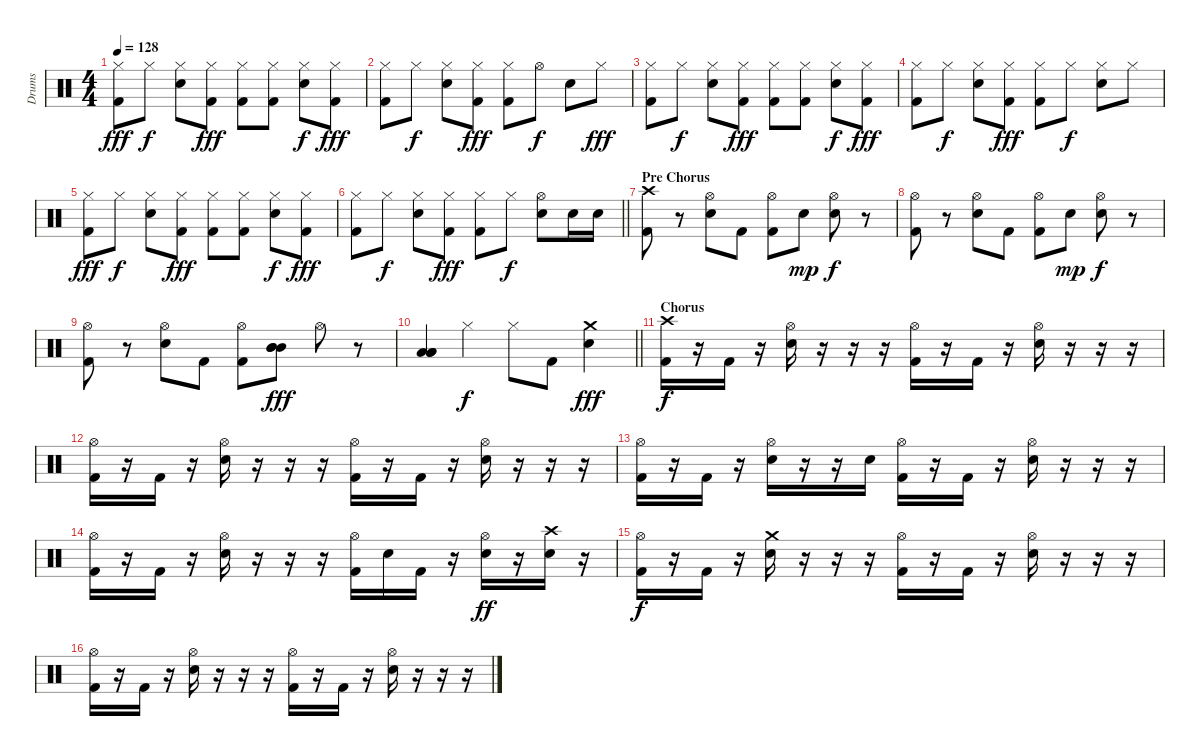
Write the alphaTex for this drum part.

\track ("Drums" "Drums") {instrument percussion}
\staff {score}
\articulation defaults
\ts (4 4)
\tempo 128
\clef neutral
\ks c
("Hi-Hat (closed)" "Kick (hit) 2").8{dy fff} "Hi-Hat (closed)".8{dy f} ("Hi-Hat (closed)" "Electric Snare (hit)").8 ("Hi-Hat (closed)" "Kick (hit) 2").8{dy fff} ("Hi-Hat (closed)" "Kick (hit) 2").8 ("Hi-Hat (closed)" "Kick (hit) 2").8 ("Hi-Hat (closed)" "Electric Snare (hit)").8{dy f} ("Hi-Hat (closed)" "Kick (hit) 2").8{dy fff} |
("Hi-Hat (closed)" "Kick (hit) 2").8 "Hi-Hat (closed)".8{dy f} ("Hi-Hat (closed)" "Electric Snare (hit)").8 ("Hi-Hat (closed)" "Kick (hit) 2").8{dy fff} ("Hi-Hat (closed)" "Kick (hit) 2").8 "Hi-Hat (open)".8{dy f} "Electric Snare (hit)".8 "Hi-Hat (closed)".8{dy fff} |
("Hi-Hat (closed)" "Kick (hit) 2").8 "Hi-Hat (closed)".8{dy f} ("Hi-Hat (closed)" "Electric Snare (hit)").8 ("Hi-Hat (closed)" "Kick (hit) 2").8{dy fff} ("Hi-Hat (closed)" "Kick (hit) 2").8 ("Hi-Hat (closed)" "Kick (hit) 2").8 ("Hi-Hat (closed)" "Electric Snare (hit)").8{dy f} ("Hi-Hat (closed)" "Kick (hit) 2").8{dy fff} |
("Hi-Hat (closed)" "Kick (hit) 2").8 "Hi-Hat (closed)".8{dy f} ("Hi-Hat (closed)" "Electric Snare (hit)").8 ("Hi-Hat (closed)" "Kick (hit) 2").8{dy fff} ("Hi-Hat (closed)" "Kick (hit) 2").8 "Hi-Hat (closed)".8{dy f} ("Hi-Hat (closed)" "Electric Snare (hit)").8 "Hi-Hat (closed)".8 |
("Hi-Hat (closed)" "Kick (hit) 2").8{dy fff} "Hi-Hat (closed)".8{dy f} ("Hi-Hat (closed)" "Electric Snare (hit)").8 ("Hi-Hat (closed)" "Kick (hit) 2").8{dy fff} ("Hi-Hat (closed)" "Kick (hit) 2").8 ("Hi-Hat (closed)" "Kick (hit) 2").8 ("Hi-Hat (closed)" "Electric Snare (hit)").8{dy f} ("Hi-Hat (closed)" "Kick (hit) 2").8{dy fff} |
\barLineRight lightlight
("Hi-Hat (closed)" "Kick (hit) 2").8 "Hi-Hat (closed)".8{dy f} ("Hi-Hat (closed)" "Electric Snare (hit)").8 ("Hi-Hat (closed)" "Kick (hit) 2").8{dy fff} ("Hi-Hat (closed)" "Kick (hit) 2").8 "Hi-Hat (closed)".8{dy f} ("Hi-Hat (open)" "Electric Snare (hit)").8 "Electric Snare (hit)".16 "Electric Snare (hit)".16 |
\section ("" "Pre Chorus")
("Crash high (hit)" "Kick (hit) 2").8 r.8 ("Hi-Hat (open)" "Electric Snare (hit)").8 "Kick (hit) 2".8 ("Hi-Hat (open)" "Kick (hit) 2").8 "Electric Snare (hit)".8{dy mp} ("Hi-Hat (open)" "Electric Snare (hit)").8{dy f} r.8 |
("Hi-Hat (open)" "Kick (hit) 2").8 r.8 ("Hi-Hat (open)" "Electric Snare (hit)").8 "Kick (hit) 2".8 ("Hi-Hat (open)" "Kick (hit) 2").8 "Electric Snare (hit)".8{dy mp} ("Hi-Hat (open)" "Electric Snare (hit)").8{dy f} r.8 |
("Hi-Hat (open)" "Kick (hit) 2").8 r.8 ("Hi-Hat (open)" "Electric Snare (hit)").8 "Kick (hit) 2".8 ("Hi-Hat (open)" "Kick (hit) 2").8 ("Mid Tom (hit)" "Mid Tom (hit)" "Mid Tom (hit)").8{dy fff} "Hi-Hat (open)".8 r.8 |
\barLineRight lightlight
("Low Tom (hit)" "Low Tom (hit)" "Low Tom (hit)").4 "Hi-Hat (closed)".4{dy f} "Hi-Hat (closed)".8 "Kick (hit) 2".8 ("Crash medium (hit)" "Electric Snare (hit)").4{dy fff} |
\section ("" "Chorus")
("Crash high (hit)" "Kick (hit) 2").16{dy f} r.16 "Kick (hit) 2".16 r.16 ("Hi-Hat (open)" "Electric Snare (hit)").16 r.16 r.16 r.16 ("Hi-Hat (open)" "Kick (hit) 2").16 r.16 "Kick (hit) 2".16 r.16 ("Hi-Hat (open)" "Electric Snare (hit)").16 r.16 r.16 r.16 |
("Hi-Hat (open)" "Kick (hit) 2").16 r.16 "Kick (hit) 2".16 r.16 ("Hi-Hat (open)" "Electric Snare (hit)").16 r.16 r.16 r.16 ("Hi-Hat (open)" "Kick (hit) 2").16 r.16 "Kick (hit) 2".16 r.16 ("Hi-Hat (open)" "Electric Snare (hit)").16 r.16 r.16 r.16 |
("Hi-Hat (open)" "Kick (hit) 2").16 r.16 "Kick (hit) 2".16 r.16 ("Hi-Hat (open)" "Electric Snare (hit)").16 r.16 r.16 "Electric Snare (hit)".16 ("Hi-Hat (open)" "Kick (hit) 2").16 r.16 "Kick (hit) 2".16 r.16 ("Hi-Hat (open)" "Electric Snare (hit)").16 r.16 r.16 r.16 |
("Hi-Hat (open)" "Kick (hit) 2").16 r.16 "Kick (hit) 2".16 r.16 ("Hi-Hat (open)" "Electric Snare (hit)").16 r.16 r.16 r.16 ("Hi-Hat (open)" "Kick (hit) 2").16 "Electric Snare (hit)".16 "Kick (hit) 2".16 r.16 ("Hi-Hat (open)" "Electric Snare (hit)").16{dy ff} r.16 ("Crash high (hit)" "Electric Snare (hit)").16 r.16 |
("Hi-Hat (open)" "Kick (hit) 2").16{dy f} r.16 "Kick (hit) 2".16 r.16 ("Crash medium (hit)" "Electric Snare (hit)").16 r.16 r.16 r.16 ("Hi-Hat (open)" "Kick (hit) 2").16 r.16 "Kick (hit) 2".16 r.16 ("Hi-Hat (open)" "Electric Snare (hit)").16 r.16 r.16 r.16 |
("Hi-Hat (open)" "Kick (hit) 2").16 r.16 "Kick (hit) 2".16 r.16 ("Hi-Hat (open)" "Electric Snare (hit)").16 r.16 r.16 r.16 ("Hi-Hat (open)" "Kick (hit) 2").16 r.16 "Kick (hit) 2".16 r.16 ("Hi-Hat (open)" "Electric Snare (hit)").16 r.16 r.16 r.16
